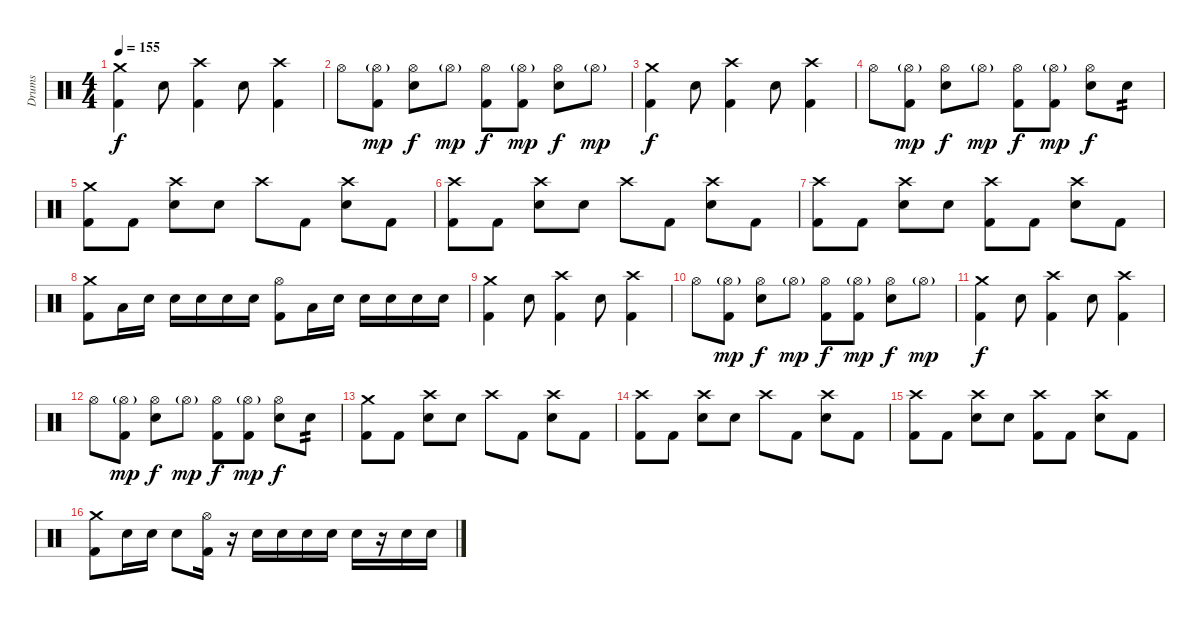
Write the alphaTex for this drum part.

\track ("Drums" "Drums") {instrument percussion}
\staff {score}
\articulation defaults
\ts (4 4)
\tempo 155
\clef neutral
\ks c
("Crash medium (hit)" "Kick (hit) 2").4{dy f} "Electric Snare (hit)".8 ("Crash high (hit)" "Kick (hit) 2").4 "Electric Snare (hit)".8 ("Crash high (hit)" "Kick (hit) 2").4 |
"Hi-Hat (open)".8 ("Hi-Hat (open)"{g} "Kick (hit) 2").8{dy mp} ("Hi-Hat (open)" "Electric Snare (hit)").8{dy f} "Hi-Hat (open)"{g}.8{dy mp} ("Hi-Hat (open)" "Kick (hit) 2").8{dy f} ("Hi-Hat (open)"{g} "Kick (hit) 2").8{dy mp} ("Hi-Hat (open)" "Electric Snare (hit)").8{dy f} "Hi-Hat (open)"{g}.8{dy mp} |
("Crash medium (hit)" "Kick (hit) 2").4{dy f} "Electric Snare (hit)".8 ("Crash high (hit)" "Kick (hit) 2").4 "Electric Snare (hit)".8 ("Crash high (hit)" "Kick (hit) 2").4 |
"Hi-Hat (open)".8 ("Hi-Hat (open)"{g} "Kick (hit) 2").8{dy mp} ("Hi-Hat (open)" "Electric Snare (hit)").8{dy f} "Hi-Hat (open)"{g}.8{dy mp} ("Hi-Hat (open)" "Kick (hit) 2").8{dy f} ("Hi-Hat (open)"{g} "Kick (hit) 2").8{dy mp} ("Hi-Hat (open)" "Electric Snare (hit)").8{dy f} "Electric Snare (hit)".8{tp 2} |
("Crash medium (hit)" "Kick (hit) 2").8 "Kick (hit) 2".8 ("Crash high (hit)" "Electric Snare (hit)").8 "Electric Snare (hit)".8 "Crash high (hit)".8 "Kick (hit) 2".8 ("Crash high (hit)" "Electric Snare (hit)").8 "Kick (hit) 2".8 |
("Crash high (hit)" "Kick (hit) 2").8 "Kick (hit) 2".8 ("Crash high (hit)" "Electric Snare (hit)").8 "Electric Snare (hit)".8 "Crash high (hit)".8 "Kick (hit) 2".8 ("Crash high (hit)" "Electric Snare (hit)").8 "Kick (hit) 2".8 |
("Crash high (hit)" "Kick (hit) 2").8 "Kick (hit) 2".8 ("Crash high (hit)" "Electric Snare (hit)").8 "Electric Snare (hit)".8 ("Crash high (hit)" "Kick (hit) 2").8 "Kick (hit) 2".8 ("Crash high (hit)" "Electric Snare (hit)").8 "Kick (hit) 2".8 |
("Crash medium (hit)" "Kick (hit) 2").8 "Low Tom (hit)".16 "Electric Snare (hit)".16 "Electric Snare (hit)".16 "Electric Snare (hit)".16 "Electric Snare (hit)".16 "Electric Snare (hit)".16 ("Kick (hit) 2" "Hi-Hat (open)").8 "Low Tom (hit)".16 "Electric Snare (hit)".16 "Electric Snare (hit)".16 "Electric Snare (hit)".16 "Electric Snare (hit)".16 "Electric Snare (hit)".16 |
("Crash medium (hit)" "Kick (hit) 2").4 "Electric Snare (hit)".8 ("Crash high (hit)" "Kick (hit) 2").4 "Electric Snare (hit)".8 ("Crash high (hit)" "Kick (hit) 2").4 |
"Hi-Hat (open)".8 ("Hi-Hat (open)"{g} "Kick (hit) 2").8{dy mp} ("Hi-Hat (open)" "Electric Snare (hit)").8{dy f} "Hi-Hat (open)"{g}.8{dy mp} ("Hi-Hat (open)" "Kick (hit) 2").8{dy f} ("Hi-Hat (open)"{g} "Kick (hit) 2").8{dy mp} ("Hi-Hat (open)" "Electric Snare (hit)").8{dy f} "Hi-Hat (open)"{g}.8{dy mp} |
("Crash medium (hit)" "Kick (hit) 2").4{dy f} "Electric Snare (hit)".8 ("Crash high (hit)" "Kick (hit) 2").4 "Electric Snare (hit)".8 ("Crash high (hit)" "Kick (hit) 2").4 |
"Hi-Hat (open)".8 ("Hi-Hat (open)"{g} "Kick (hit) 2").8{dy mp} ("Hi-Hat (open)" "Electric Snare (hit)").8{dy f} "Hi-Hat (open)"{g}.8{dy mp} ("Hi-Hat (open)" "Kick (hit) 2").8{dy f} ("Hi-Hat (open)"{g} "Kick (hit) 2").8{dy mp} ("Hi-Hat (open)" "Electric Snare (hit)").8{dy f} "Electric Snare (hit)".8{tp 2} |
("Crash medium (hit)" "Kick (hit) 2").8 "Kick (hit) 2".8 ("Crash high (hit)" "Electric Snare (hit)").8 "Electric Snare (hit)".8 "Crash high (hit)".8 "Kick (hit) 2".8 ("Crash high (hit)" "Electric Snare (hit)").8 "Kick (hit) 2".8 |
("Crash high (hit)" "Kick (hit) 2").8 "Kick (hit) 2".8 ("Crash high (hit)" "Electric Snare (hit)").8 "Electric Snare (hit)".8 "Crash high (hit)".8 "Kick (hit) 2".8 ("Crash high (hit)" "Electric Snare (hit)").8 "Kick (hit) 2".8 |
("Crash high (hit)" "Kick (hit) 2").8 "Kick (hit) 2".8 ("Crash high (hit)" "Electric Snare (hit)").8 "Electric Snare (hit)".8 ("Crash high (hit)" "Kick (hit) 2").8 "Kick (hit) 2".8 ("Crash high (hit)" "Electric Snare (hit)").8 "Kick (hit) 2".8 |
("Crash medium (hit)" "Kick (hit) 2").8 "Electric Snare (hit)".16 "Electric Snare (hit)".16 "Electric Snare (hit)".8 ("Hi-Hat (open)" "Kick (hit) 2").16 r.16 "Electric Snare (hit)".16 "Electric Snare (hit)".16 "Electric Snare (hit)".16 "Electric Snare (hit)".16 "Electric Snare (hit)".16 r.16 "Electric Snare (hit)".16 "Electric Snare (hit)".16
